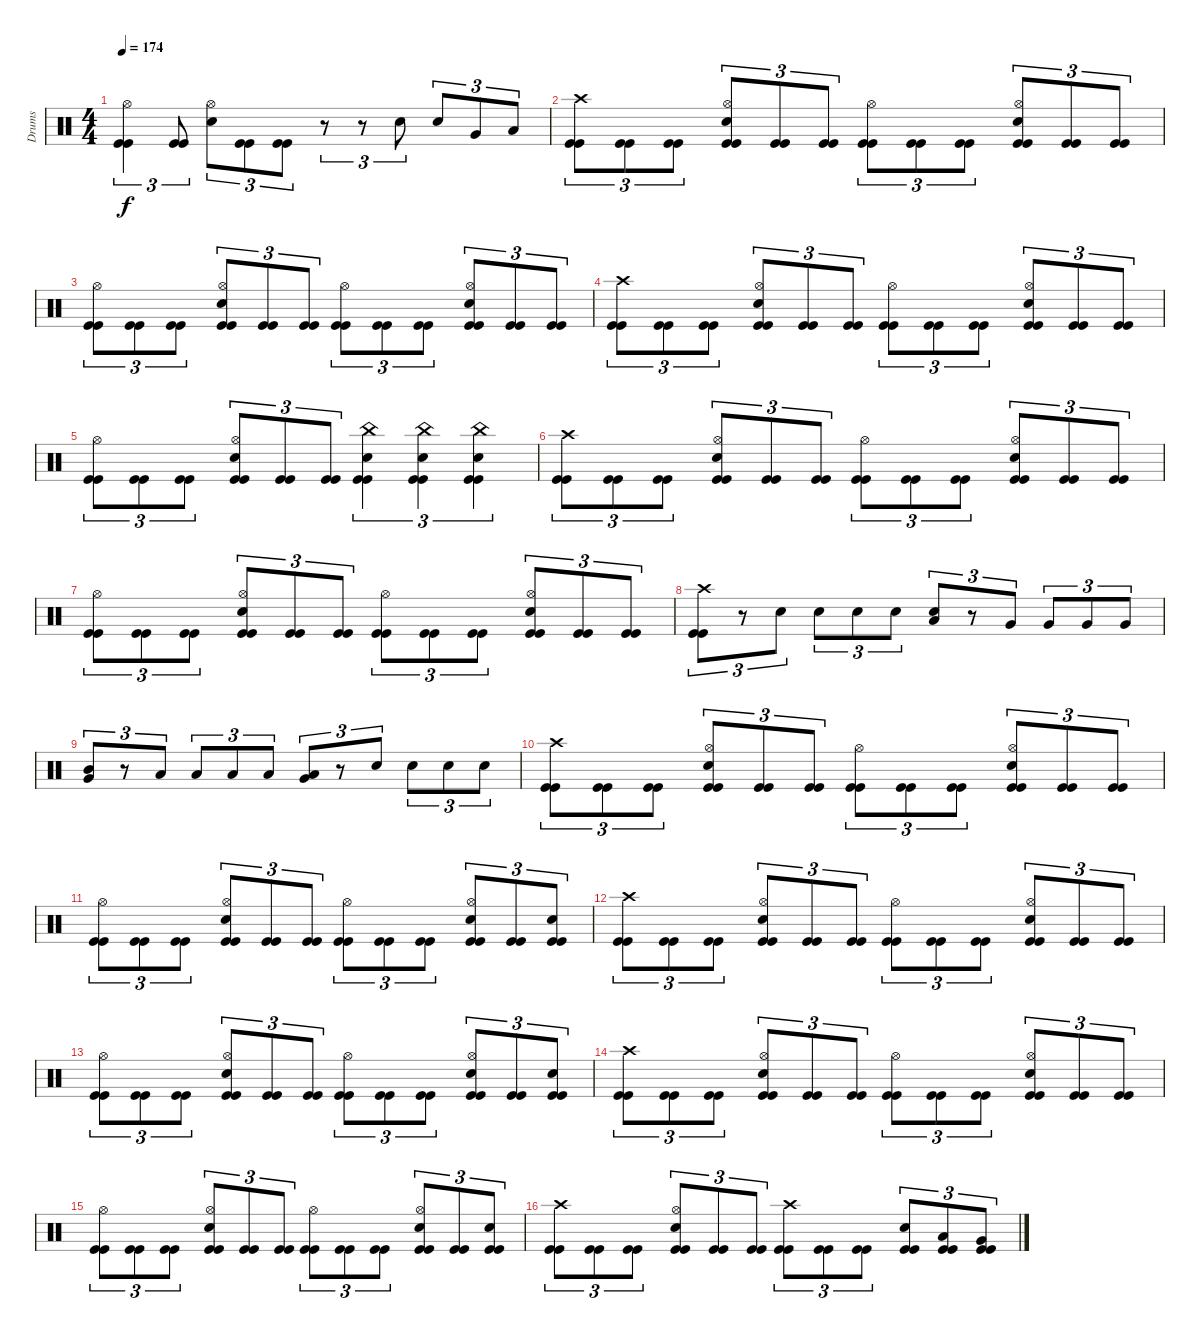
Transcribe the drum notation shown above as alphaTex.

\track ("Drums" "Drums") {instrument percussion}
\staff {score}
\articulation defaults
\ts (4 4)
\tempo 174
\clef neutral
\ks c
("Kick (hit)" "Kick (hit)" "Hi-Hat (open)").4{tu (3 2) dy f} ("Kick (hit)" "Kick (hit)").8{tu (3 2)} ("Snare (hit) 2" "Hi-Hat (open)").8{tu (3 2)} ("Kick (hit)" "Kick (hit)").8{tu (3 2)} ("Kick (hit)" "Kick (hit)").8{tu (3 2)} r.8{tu (3 2)} r.8{tu (3 2)} "Snare (hit) 2".8{tu (3 2)} "Snare (hit) 2".8{tu (3 2)} "Very Low Tom (hit)".8{tu (3 2)} "Low Floor Tom (hit)".8{tu (3 2)} |
("Kick (hit)" "Kick (hit)" "Crash high (hit)").8{tu (3 2)} ("Kick (hit)" "Kick (hit)").8{tu (3 2)} ("Kick (hit)" "Kick (hit)").8{tu (3 2)} ("Kick (hit)" "Kick (hit)" "Snare (hit) 2" "Hi-Hat (open)").8{tu (3 2)} ("Kick (hit)" "Kick (hit)").8{tu (3 2)} ("Kick (hit)" "Kick (hit)").8{tu (3 2)} ("Kick (hit)" "Kick (hit)" "Hi-Hat (open)").8{tu (3 2)} ("Kick (hit)" "Kick (hit)").8{tu (3 2)} ("Kick (hit)" "Kick (hit)").8{tu (3 2)} ("Kick (hit)" "Kick (hit)" "Snare (hit) 2" "Hi-Hat (open)").8{tu (3 2)} ("Kick (hit)" "Kick (hit)").8{tu (3 2)} ("Kick (hit)" "Kick (hit)").8{tu (3 2)} |
("Kick (hit)" "Kick (hit)" "Hi-Hat (open)").8{tu (3 2)} ("Kick (hit)" "Kick (hit)").8{tu (3 2)} ("Kick (hit)" "Kick (hit)").8{tu (3 2)} ("Kick (hit)" "Kick (hit)" "Snare (hit) 2" "Hi-Hat (open)").8{tu (3 2)} ("Kick (hit)" "Kick (hit)").8{tu (3 2)} ("Kick (hit)" "Kick (hit)").8{tu (3 2)} ("Kick (hit)" "Kick (hit)" "Hi-Hat (open)").8{tu (3 2)} ("Kick (hit)" "Kick (hit)").8{tu (3 2)} ("Kick (hit)" "Kick (hit)").8{tu (3 2)} ("Kick (hit)" "Kick (hit)" "Snare (hit) 2" "Hi-Hat (open)").8{tu (3 2)} ("Kick (hit)" "Kick (hit)").8{tu (3 2)} ("Kick (hit)" "Kick (hit)").8{tu (3 2)} |
("Kick (hit)" "Kick (hit)" "Crash high (hit)").8{tu (3 2)} ("Kick (hit)" "Kick (hit)").8{tu (3 2)} ("Kick (hit)" "Kick (hit)").8{tu (3 2)} ("Kick (hit)" "Kick (hit)" "Snare (hit) 2" "Hi-Hat (open)").8{tu (3 2)} ("Kick (hit)" "Kick (hit)").8{tu (3 2)} ("Kick (hit)" "Kick (hit)").8{tu (3 2)} ("Kick (hit)" "Kick (hit)" "Hi-Hat (open)").8{tu (3 2)} ("Kick (hit)" "Kick (hit)").8{tu (3 2)} ("Kick (hit)" "Kick (hit)").8{tu (3 2)} ("Kick (hit)" "Kick (hit)" "Snare (hit) 2" "Hi-Hat (open)").8{tu (3 2)} ("Kick (hit)" "Kick (hit)").8{tu (3 2)} ("Kick (hit)" "Kick (hit)").8{tu (3 2)} |
("Kick (hit)" "Kick (hit)" "Hi-Hat (open)").8{tu (3 2)} ("Kick (hit)" "Kick (hit)").8{tu (3 2)} ("Kick (hit)" "Kick (hit)").8{tu (3 2)} ("Kick (hit)" "Kick (hit)" "Snare (hit) 2" "Hi-Hat (open)").8{tu (3 2)} ("Kick (hit)" "Kick (hit)").8{tu (3 2)} ("Kick (hit)" "Kick (hit)").8{tu (3 2)} ("Kick (hit)" "Kick (hit)" "Snare (hit) 2" "China (hit)").4{tu (3 2)} ("Kick (hit)" "Kick (hit)" "Snare (hit) 2" "China (hit)").4{tu (3 2)} ("Kick (hit)" "Kick (hit)" "Snare (hit) 2" "China (hit)").4{tu (3 2)} |
("Kick (hit)" "Kick (hit)" "Crash high (hit)").8{tu (3 2)} ("Kick (hit)" "Kick (hit)").8{tu (3 2)} ("Kick (hit)" "Kick (hit)").8{tu (3 2)} ("Kick (hit)" "Kick (hit)" "Snare (hit) 2" "Hi-Hat (open)").8{tu (3 2)} ("Kick (hit)" "Kick (hit)").8{tu (3 2)} ("Kick (hit)" "Kick (hit)").8{tu (3 2)} ("Kick (hit)" "Kick (hit)" "Hi-Hat (open)").8{tu (3 2)} ("Kick (hit)" "Kick (hit)").8{tu (3 2)} ("Kick (hit)" "Kick (hit)").8{tu (3 2)} ("Kick (hit)" "Kick (hit)" "Snare (hit) 2" "Hi-Hat (open)").8{tu (3 2)} ("Kick (hit)" "Kick (hit)").8{tu (3 2)} ("Kick (hit)" "Kick (hit)").8{tu (3 2)} |
("Kick (hit)" "Kick (hit)" "Hi-Hat (open)").8{tu (3 2)} ("Kick (hit)" "Kick (hit)").8{tu (3 2)} ("Kick (hit)" "Kick (hit)").8{tu (3 2)} ("Kick (hit)" "Kick (hit)" "Snare (hit) 2" "Hi-Hat (open)").8{tu (3 2)} ("Kick (hit)" "Kick (hit)").8{tu (3 2)} ("Kick (hit)" "Kick (hit)").8{tu (3 2)} ("Kick (hit)" "Kick (hit)" "Hi-Hat (open)").8{tu (3 2)} ("Kick (hit)" "Kick (hit)").8{tu (3 2)} ("Kick (hit)" "Kick (hit)").8{tu (3 2)} ("Kick (hit)" "Kick (hit)" "Snare (hit) 2" "Hi-Hat (open)").8{tu (3 2)} ("Kick (hit)" "Kick (hit)").8{tu (3 2)} ("Kick (hit)" "Kick (hit)").8{tu (3 2)} |
("Kick (hit)" "Kick (hit)" "Crash high (hit)").8{tu (3 2)} r.8{tu (3 2)} "Snare (hit) 2".8{tu (3 2)} "Snare (hit) 2".8{tu (3 2)} "Snare (hit) 2".8{tu (3 2)} "Snare (hit) 2".8{tu (3 2)} ("Snare (hit) 2" "Low Tom (hit)").8{tu (3 2)} r.8{tu (3 2)} "Very Low Tom (hit)".8{tu (3 2)} "Very Low Tom (hit)".8{tu (3 2)} "Very Low Tom (hit)".8{tu (3 2)} "Very Low Tom (hit)".8{tu (3 2)} |
("Very Low Tom (hit)" "Mid Tom (hit)").8{tu (3 2)} r.8{tu (3 2)} "Low Floor Tom (hit)".8{tu (3 2)} "Low Floor Tom (hit)".8{tu (3 2)} "Low Floor Tom (hit)".8{tu (3 2)} "Low Floor Tom (hit)".8{tu (3 2)} ("Low Floor Tom (hit)" "Very Low Tom (hit)").8{tu (3 2)} r.8{tu (3 2)} "Snare (hit) 2".8{tu (3 2)} "Snare (hit) 2".8{tu (3 2)} "Snare (hit) 2".8{tu (3 2)} "Snare (hit) 2".8{tu (3 2)} |
("Kick (hit)" "Kick (hit)" "Crash high (hit)").8{tu (3 2)} ("Kick (hit)" "Kick (hit)").8{tu (3 2)} ("Kick (hit)" "Kick (hit)").8{tu (3 2)} ("Kick (hit)" "Kick (hit)" "Snare (hit) 2" "Hi-Hat (open)").8{tu (3 2)} ("Kick (hit)" "Kick (hit)").8{tu (3 2)} ("Kick (hit)" "Kick (hit)").8{tu (3 2)} ("Kick (hit)" "Kick (hit)" "Hi-Hat (open)").8{tu (3 2)} ("Kick (hit)" "Kick (hit)").8{tu (3 2)} ("Kick (hit)" "Kick (hit)").8{tu (3 2)} ("Kick (hit)" "Kick (hit)" "Snare (hit) 2" "Hi-Hat (open)").8{tu (3 2)} ("Kick (hit)" "Kick (hit)").8{tu (3 2)} ("Kick (hit)" "Kick (hit)").8{tu (3 2)} |
("Kick (hit)" "Kick (hit)" "Hi-Hat (open)").8{tu (3 2)} ("Kick (hit)" "Kick (hit)").8{tu (3 2)} ("Kick (hit)" "Kick (hit)").8{tu (3 2)} ("Kick (hit)" "Kick (hit)" "Snare (hit) 2" "Hi-Hat (open)").8{tu (3 2)} ("Kick (hit)" "Kick (hit)").8{tu (3 2)} ("Kick (hit)" "Kick (hit)").8{tu (3 2)} ("Kick (hit)" "Kick (hit)" "Hi-Hat (open)").8{tu (3 2)} ("Kick (hit)" "Kick (hit)").8{tu (3 2)} ("Kick (hit)" "Kick (hit)").8{tu (3 2)} ("Kick (hit)" "Kick (hit)" "Snare (hit) 2" "Hi-Hat (open)").8{tu (3 2)} ("Kick (hit)" "Kick (hit)").8{tu (3 2)} ("Kick (hit)" "Kick (hit)" "Snare (hit) 2").8{tu (3 2)} |
("Kick (hit)" "Kick (hit)" "Crash high (hit)").8{tu (3 2)} ("Kick (hit)" "Kick (hit)").8{tu (3 2)} ("Kick (hit)" "Kick (hit)").8{tu (3 2)} ("Kick (hit)" "Kick (hit)" "Snare (hit) 2" "Hi-Hat (open)").8{tu (3 2)} ("Kick (hit)" "Kick (hit)").8{tu (3 2)} ("Kick (hit)" "Kick (hit)").8{tu (3 2)} ("Kick (hit)" "Kick (hit)" "Hi-Hat (open)").8{tu (3 2)} ("Kick (hit)" "Kick (hit)").8{tu (3 2)} ("Kick (hit)" "Kick (hit)").8{tu (3 2)} ("Kick (hit)" "Kick (hit)" "Snare (hit) 2" "Hi-Hat (open)").8{tu (3 2)} ("Kick (hit)" "Kick (hit)").8{tu (3 2)} ("Kick (hit)" "Kick (hit)").8{tu (3 2)} |
("Kick (hit)" "Kick (hit)" "Hi-Hat (open)").8{tu (3 2)} ("Kick (hit)" "Kick (hit)").8{tu (3 2)} ("Kick (hit)" "Kick (hit)").8{tu (3 2)} ("Kick (hit)" "Kick (hit)" "Snare (hit) 2" "Hi-Hat (open)").8{tu (3 2)} ("Kick (hit)" "Kick (hit)").8{tu (3 2)} ("Kick (hit)" "Kick (hit)").8{tu (3 2)} ("Kick (hit)" "Kick (hit)" "Hi-Hat (open)").8{tu (3 2)} ("Kick (hit)" "Kick (hit)").8{tu (3 2)} ("Kick (hit)" "Kick (hit)").8{tu (3 2)} ("Kick (hit)" "Kick (hit)" "Snare (hit) 2" "Hi-Hat (open)").8{tu (3 2)} ("Kick (hit)" "Kick (hit)").8{tu (3 2)} ("Kick (hit)" "Kick (hit)" "Snare (hit) 2").8{tu (3 2)} |
("Kick (hit)" "Kick (hit)" "Crash high (hit)").8{tu (3 2)} ("Kick (hit)" "Kick (hit)").8{tu (3 2)} ("Kick (hit)" "Kick (hit)").8{tu (3 2)} ("Kick (hit)" "Kick (hit)" "Snare (hit) 2" "Hi-Hat (open)").8{tu (3 2)} ("Kick (hit)" "Kick (hit)").8{tu (3 2)} ("Kick (hit)" "Kick (hit)").8{tu (3 2)} ("Kick (hit)" "Kick (hit)" "Hi-Hat (open)").8{tu (3 2)} ("Kick (hit)" "Kick (hit)").8{tu (3 2)} ("Kick (hit)" "Kick (hit)").8{tu (3 2)} ("Kick (hit)" "Kick (hit)" "Snare (hit) 2" "Hi-Hat (open)").8{tu (3 2)} ("Kick (hit)" "Kick (hit)").8{tu (3 2)} ("Kick (hit)" "Kick (hit)").8{tu (3 2)} |
("Kick (hit)" "Kick (hit)" "Hi-Hat (open)").8{tu (3 2)} ("Kick (hit)" "Kick (hit)").8{tu (3 2)} ("Kick (hit)" "Kick (hit)").8{tu (3 2)} ("Kick (hit)" "Kick (hit)" "Snare (hit) 2" "Hi-Hat (open)").8{tu (3 2)} ("Kick (hit)" "Kick (hit)").8{tu (3 2)} ("Kick (hit)" "Kick (hit)").8{tu (3 2)} ("Kick (hit)" "Kick (hit)" "Hi-Hat (open)").8{tu (3 2)} ("Kick (hit)" "Kick (hit)").8{tu (3 2)} ("Kick (hit)" "Kick (hit)").8{tu (3 2)} ("Kick (hit)" "Kick (hit)" "Snare (hit) 2" "Hi-Hat (open)").8{tu (3 2)} ("Kick (hit)" "Kick (hit)").8{tu (3 2)} ("Kick (hit)" "Kick (hit)" "Snare (hit) 2").8{tu (3 2)} |
("Kick (hit)" "Kick (hit)" "Crash high (hit)").8{tu (3 2)} ("Kick (hit)" "Kick (hit)").8{tu (3 2)} ("Kick (hit)" "Kick (hit)").8{tu (3 2)} ("Kick (hit)" "Kick (hit)" "Snare (hit) 2" "Hi-Hat (open)").8{tu (3 2)} ("Kick (hit)" "Kick (hit)").8{tu (3 2)} ("Kick (hit)" "Kick (hit)").8{tu (3 2)} ("Kick (hit)" "Kick (hit)" "Crash high (hit)").8{tu (3 2)} ("Kick (hit)" "Kick (hit)").8{tu (3 2)} ("Kick (hit)" "Kick (hit)").8{tu (3 2)} ("Kick (hit)" "Kick (hit)" "Snare (hit) 2").8{tu (3 2)} ("Kick (hit)" "Kick (hit)" "Low Tom (hit)").8{tu (3 2)} ("Kick (hit)" "Kick (hit)" "Very Low Tom (hit)").8{tu (3 2)}
